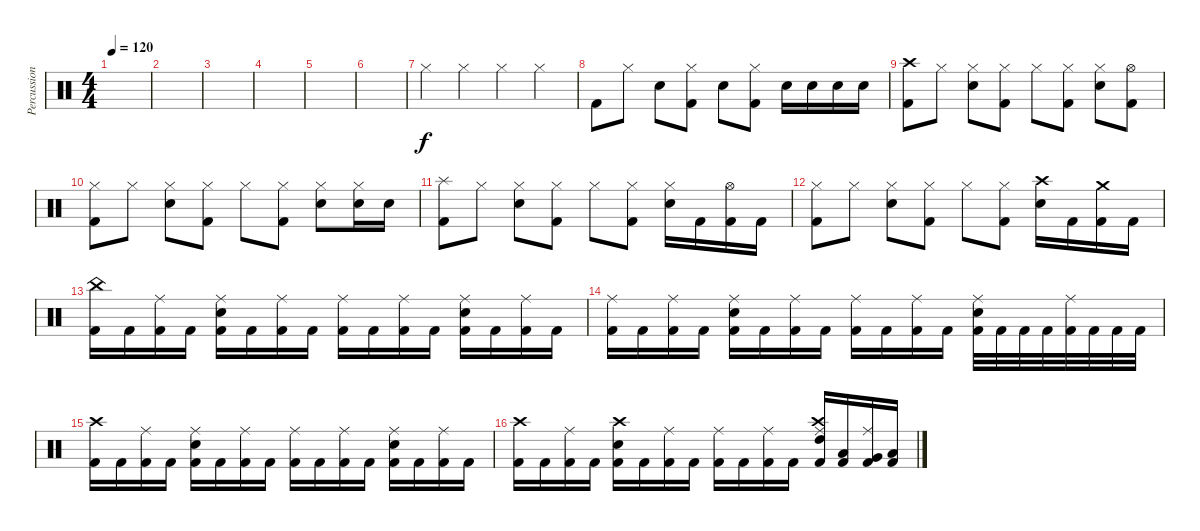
\track ("Percussion" "Percussion") {instrument percussion}
\staff {score}
\articulation defaults
\ts (4 4)
\tempo 120
\clef neutral
\ks c
|
|
|
|
|
|
"Hi-Hat (closed)".4 "Hi-Hat (closed)".4 "Hi-Hat (closed)".4 "Hi-Hat (closed)".4 |
"Kick (hit) 2".8 "Hi-Hat (closed)".8 "Snare (hit) 2".8 ("Hi-Hat (closed)" "Kick (hit) 2").8 "Snare (hit) 2".8 ("Hi-Hat (closed)" "Kick (hit) 2").8 "Snare (hit) 2".16 "Snare (hit) 2".16 "Snare (hit) 2".16 "Snare (hit) 2".16 |
("Crash high (hit)" "Kick (hit) 2").8 "Hi-Hat (closed)".8 ("Hi-Hat (closed)" "Snare (hit) 2").8 ("Hi-Hat (closed)" "Kick (hit) 2").8 "Hi-Hat (closed)".8 ("Hi-Hat (closed)" "Kick (hit) 2").8 ("Hi-Hat (closed)" "Snare (hit) 2").8 ("Hi-Hat (open)" "Kick (hit) 2").8 |
("Hi-Hat (closed)" "Kick (hit) 2").8 "Hi-Hat (closed)".8 ("Hi-Hat (closed)" "Snare (hit) 2").8 ("Hi-Hat (closed)" "Kick (hit) 2").8 "Hi-Hat (closed)".8 ("Hi-Hat (closed)" "Kick (hit) 2").8 ("Hi-Hat (closed)" "Snare (hit) 2").8 ("Hi-Hat (closed)" "Snare (hit) 2").16 "Snare (hit) 2".16 |
("Splash (hit)" "Kick (hit) 2").8 "Hi-Hat (closed)".8 ("Hi-Hat (closed)" "Snare (hit) 2").8 ("Hi-Hat (closed)" "Kick (hit) 2").8 "Hi-Hat (closed)".8 ("Hi-Hat (closed)" "Kick (hit) 2").8 ("Hi-Hat (closed)" "Snare (hit) 2").16 "Kick (hit) 2".16 ("Hi-Hat (open)" "Kick (hit) 2").16 "Kick (hit) 2".16 |
("Hi-Hat (closed)" "Kick (hit) 2").8 "Hi-Hat (closed)".8 ("Hi-Hat (closed)" "Snare (hit) 2").8 ("Hi-Hat (closed)" "Kick (hit) 2").8 "Hi-Hat (closed)".8 ("Hi-Hat (closed)" "Kick (hit) 2").8 ("Crash high (hit)" "Snare (hit) 2").16 "Kick (hit) 2".16 ("Crash medium (hit)" "Kick (hit) 2").16 "Kick (hit) 2".16 |
("China (hit)" "Kick (hit) 2").16 "Kick (hit) 2".16 ("Ride (middle)" "Kick (hit) 2").16 "Kick (hit) 2".16 ("Ride (middle)" "Snare (hit) 2" "Kick (hit) 2").16 "Kick (hit) 2".16 ("Ride (middle)" "Kick (hit) 2").16 "Kick (hit) 2".16 ("Ride (middle)" "Kick (hit) 2").16 "Kick (hit) 2".16 ("Ride (middle)" "Kick (hit) 2").16 "Kick (hit) 2".16 ("Ride (middle)" "Snare (hit) 2" "Kick (hit) 2").16 "Kick (hit) 2".16 ("Ride (middle)" "Kick (hit) 2").16 "Kick (hit) 2".16 |
("Ride (middle)" "Kick (hit) 2").16 "Kick (hit) 2".16 ("Ride (middle)" "Kick (hit) 2").16 "Kick (hit) 2".16 ("Ride (middle)" "Snare (hit) 2" "Kick (hit) 2").16 "Kick (hit) 2".16 ("Ride (middle)" "Kick (hit) 2").16 "Kick (hit) 2".16 ("Ride (middle)" "Kick (hit) 2").16 "Kick (hit) 2".16 ("Ride (middle)" "Kick (hit) 2").16 "Kick (hit) 2".16 ("Ride (middle)" "Snare (hit) 2" "Kick (hit) 2").32 "Kick (hit) 2".32 "Kick (hit) 2".32 "Kick (hit) 2".32 ("Ride (middle)" "Kick (hit) 2").32 "Kick (hit) 2".32 "Kick (hit) 2".32 "Kick (hit) 2".32 |
("Crash high (hit)" "Kick (hit) 2").16 "Kick (hit) 2".16 ("Ride (middle)" "Kick (hit) 2").16 "Kick (hit) 2".16 ("Ride (middle)" "Snare (hit) 2" "Kick (hit) 2").16 "Kick (hit) 2".16 ("Ride (middle)" "Kick (hit) 2").16 "Kick (hit) 2".16 ("Ride (middle)" "Kick (hit) 2").16 "Kick (hit) 2".16 ("Ride (middle)" "Kick (hit) 2").16 "Kick (hit) 2".16 ("Ride (middle)" "Snare (hit) 2" "Kick (hit) 2").16 "Kick (hit) 2".16 ("Ride (middle)" "Kick (hit) 2").16 "Kick (hit) 2".16 |
("Crash high (hit)" "Kick (hit) 2").16 "Kick (hit) 2".16 ("Ride (middle)" "Kick (hit) 2").16 "Kick (hit) 2".16 ("Crash high (hit)" "Snare (hit) 2" "Kick (hit) 2").16 "Kick (hit) 2".16 ("Ride (middle)" "Kick (hit) 2").16 "Kick (hit) 2".16 ("Ride (middle)" "Kick (hit) 2").16 "Kick (hit) 2".16 ("Ride (middle)" "Kick (hit) 2").16 "Kick (hit) 2".16 ("Crash high (hit)" "Ride (middle)" "High Tom (hit)" "Kick (hit) 2").16 ("Low Tom (hit)" "Kick (hit) 2").16 ("Ride (middle)" "Very Low Tom (hit)" "Kick (hit) 2").16 ("Low Floor Tom (hit)" "Kick (hit) 2").16
